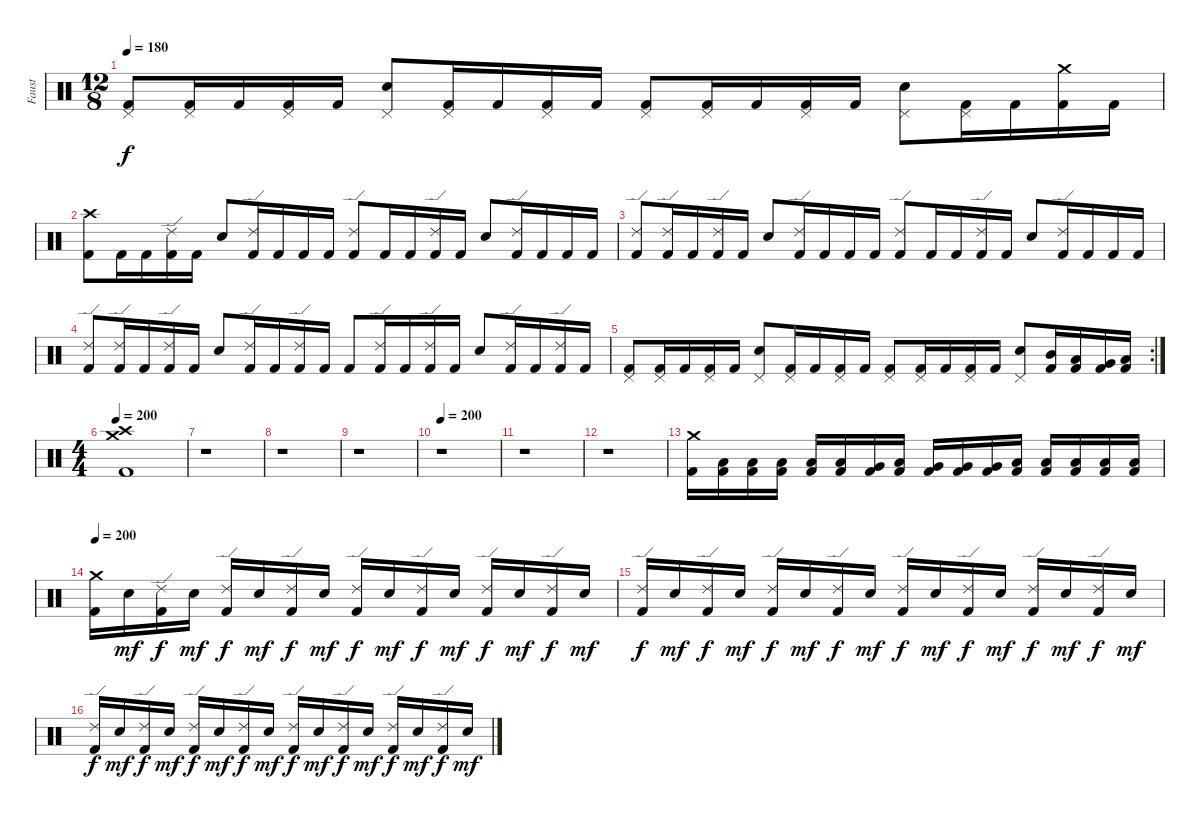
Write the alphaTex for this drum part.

\track ("Faust" "Faust") {instrument percussion}
\staff {score}
\articulation defaults
\ts (12 8)
\tempo 180
\clef neutral
\ks c
("Pedal Hi-Hat (hit)" "Kick (hit) 2").8{dy f} ("Pedal Hi-Hat (hit)" "Kick (hit) 2").16 "Kick (hit) 2".16 ("Pedal Hi-Hat (hit)" "Kick (hit) 2").16 "Kick (hit) 2".16 ("Pedal Hi-Hat (hit)" "Electric Snare (hit)").8 ("Pedal Hi-Hat (hit)" "Kick (hit) 2").16 "Kick (hit) 2".16 ("Pedal Hi-Hat (hit)" "Kick (hit) 2").16 "Kick (hit) 2".16 ("Pedal Hi-Hat (hit)" "Kick (hit) 2").8 ("Pedal Hi-Hat (hit)" "Kick (hit) 2").16 "Kick (hit) 2".16 ("Pedal Hi-Hat (hit)" "Kick (hit) 2").16 "Kick (hit) 2".16 ("Pedal Hi-Hat (hit)" "Electric Snare (hit)").8 ("Pedal Hi-Hat (hit)" "Kick (hit) 2").16 "Kick (hit) 2".16 ("Crash medium (hit)" "Kick (hit) 2").16 "Kick (hit) 2".16 |
("Crash high (hit)" "Kick (hit) 2").8 "Kick (hit) 2".16 "Kick (hit) 2".16 ("Ride (edge) 2" "Kick (hit) 2").16 "Kick (hit) 2".16 "Electric Snare (hit)".8 ("Ride (edge) 2" "Kick (hit) 2").16 "Kick (hit) 2".16 "Kick (hit) 2".16 "Kick (hit) 2".16 ("Ride (edge) 2" "Kick (hit) 2").8 "Kick (hit) 2".16 "Kick (hit) 2".16 ("Ride (edge) 2" "Kick (hit) 2").16 "Kick (hit) 2".16 "Electric Snare (hit)".8 ("Ride (edge) 2" "Kick (hit) 2").16 "Kick (hit) 2".16 "Kick (hit) 2".16 "Kick (hit) 2".16 |
("Ride (edge) 2" "Kick (hit) 2").8 ("Ride (edge) 2" "Kick (hit) 2").16 "Kick (hit) 2".16 ("Ride (edge) 2" "Kick (hit) 2").16 "Kick (hit) 2".16 "Electric Snare (hit)".8 ("Ride (edge) 2" "Kick (hit) 2").16 "Kick (hit) 2".16 "Kick (hit) 2".16 "Kick (hit) 2".16 ("Ride (edge) 2" "Kick (hit) 2").8 "Kick (hit) 2".16 "Kick (hit) 2".16 ("Ride (edge) 2" "Kick (hit) 2").16 "Kick (hit) 2".16 "Electric Snare (hit)".8 ("Ride (edge) 2" "Kick (hit) 2").16 "Kick (hit) 2".16 "Kick (hit) 2".16 "Kick (hit) 2".16 |
("Ride (edge) 2" "Kick (hit) 2").8 ("Ride (edge) 2" "Kick (hit) 2").16 "Kick (hit) 2".16 ("Ride (edge) 2" "Kick (hit) 2").16 "Kick (hit) 2".16 "Electric Snare (hit)".8 ("Ride (edge) 2" "Kick (hit) 2").16 "Kick (hit) 2".16 ("Ride (edge) 2" "Kick (hit) 2").16 "Kick (hit) 2".16 "Kick (hit) 2".8 ("Ride (edge) 2" "Kick (hit) 2").16 "Kick (hit) 2".16 ("Ride (edge) 2" "Kick (hit) 2").16 "Kick (hit) 2".16 "Electric Snare (hit)".8 ("Ride (edge) 2" "Kick (hit) 2").16 "Kick (hit) 2".16 ("Ride (edge) 2" "Kick (hit) 2").16 "Kick (hit) 2".16 |
\rc 2
("Pedal Hi-Hat (hit)" "Kick (hit) 2").8 ("Pedal Hi-Hat (hit)" "Kick (hit) 2").16 "Kick (hit) 2".16 ("Pedal Hi-Hat (hit)" "Kick (hit) 2").16 "Kick (hit) 2".16 ("Pedal Hi-Hat (hit)" "Electric Snare (hit)").8 ("Pedal Hi-Hat (hit)" "Kick (hit) 2").16 "Kick (hit) 2".16 ("Pedal Hi-Hat (hit)" "Kick (hit) 2").16 "Kick (hit) 2".16 ("Pedal Hi-Hat (hit)" "Kick (hit) 2").8 ("Pedal Hi-Hat (hit)" "Kick (hit) 2").16 "Kick (hit) 2".16 ("Pedal Hi-Hat (hit)" "Kick (hit) 2").16 "Kick (hit) 2".16 ("Pedal Hi-Hat (hit)" "Electric Snare (hit)").8 ("Mid Tom (hit)" "Kick (hit) 2").16 ("Low Tom (hit)" "Kick (hit) 2").16 ("Very Low Tom (hit)" "Kick (hit) 2").16 ("Low Floor Tom (hit)" "Kick (hit) 2").16 |
\ts (4 4)
\tempo 200
("Crash high (hit)" "Crash medium (hit)" "Kick (hit) 2").1 |
r.1 |
r.1 |
r.1 |
\tempo 200
r.1 |
r.1 |
r.1 |
("Crash medium (hit)" "Kick (hit) 2").16 ("Low Tom (hit)" "Kick (hit) 2").16 ("Low Floor Tom (hit)" "Kick (hit) 2").16 ("Low Tom (hit)" "Kick (hit) 2").16 ("Low Tom (hit)" "Kick (hit) 2").16 ("Low Tom (hit)" "Kick (hit) 2").16 ("Very Low Tom (hit)" "Kick (hit) 2").16 ("Low Floor Tom (hit)" "Kick (hit) 2").16 ("Very Low Tom (hit)" "Kick (hit) 2").16 ("Very Low Tom (hit)" "Kick (hit) 2").16 ("Very Low Tom (hit)" "Kick (hit) 2").16 ("Low Floor Tom (hit)" "Kick (hit) 2").16 ("Low Floor Tom (hit)" "Kick (hit) 2").16 ("Low Floor Tom (hit)" "Kick (hit) 2").16 ("Low Floor Tom (hit)" "Kick (hit) 2").16 ("Low Floor Tom (hit)" "Kick (hit) 2").16 |
\tempo 200
("Crash medium (hit)" "Kick (hit) 2").16 "Electric Snare (hit)".16{dy mf} ("Ride (edge) 2" "Kick (hit) 2").16{dy f} "Electric Snare (hit)".16{dy mf} ("Ride (edge) 2" "Kick (hit) 2").16{dy f} "Electric Snare (hit)".16{dy mf} ("Ride (edge) 2" "Kick (hit) 2").16{dy f} "Electric Snare (hit)".16{dy mf} ("Ride (edge) 2" "Kick (hit) 2").16{dy f} "Electric Snare (hit)".16{dy mf} ("Ride (edge) 2" "Kick (hit) 2").16{dy f} "Electric Snare (hit)".16{dy mf} ("Ride (edge) 2" "Kick (hit) 2").16{dy f} "Electric Snare (hit)".16{dy mf} ("Ride (edge) 2" "Kick (hit) 2").16{dy f} "Electric Snare (hit)".16{dy mf} |
("Ride (edge) 2" "Kick (hit) 2").16{dy f} "Electric Snare (hit)".16{dy mf} ("Ride (edge) 2" "Kick (hit) 2").16{dy f} "Electric Snare (hit)".16{dy mf} ("Ride (edge) 2" "Kick (hit) 2").16{dy f} "Electric Snare (hit)".16{dy mf} ("Ride (edge) 2" "Kick (hit) 2").16{dy f} "Electric Snare (hit)".16{dy mf} ("Ride (edge) 2" "Kick (hit) 2").16{dy f} "Electric Snare (hit)".16{dy mf} ("Ride (edge) 2" "Kick (hit) 2").16{dy f} "Electric Snare (hit)".16{dy mf} ("Ride (edge) 2" "Kick (hit) 2").16{dy f} "Electric Snare (hit)".16{dy mf} ("Ride (edge) 2" "Kick (hit) 2").16{dy f} "Electric Snare (hit)".16{dy mf} |
("Ride (edge) 2" "Kick (hit) 2").16{dy f} "Electric Snare (hit)".16{dy mf} ("Ride (edge) 2" "Kick (hit) 2").16{dy f} "Electric Snare (hit)".16{dy mf} ("Ride (edge) 2" "Kick (hit) 2").16{dy f} "Electric Snare (hit)".16{dy mf} ("Ride (edge) 2" "Kick (hit) 2").16{dy f} "Electric Snare (hit)".16{dy mf} ("Ride (edge) 2" "Kick (hit) 2").16{dy f} "Electric Snare (hit)".16{dy mf} ("Ride (edge) 2" "Kick (hit) 2").16{dy f} "Electric Snare (hit)".16{dy mf} ("Ride (edge) 2" "Kick (hit) 2").16{dy f} "Electric Snare (hit)".16{dy mf} ("Ride (edge) 2" "Kick (hit) 2").16{dy f} "Electric Snare (hit)".16{dy mf}
